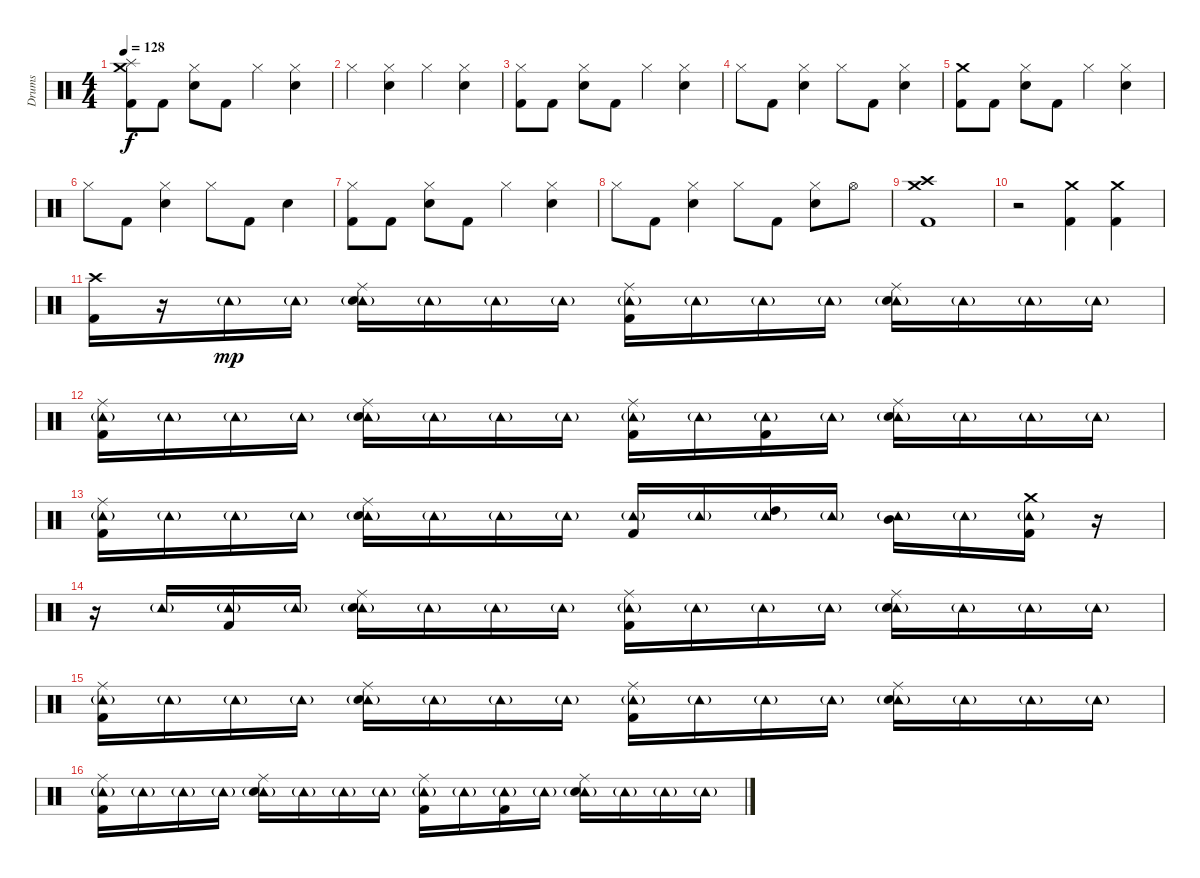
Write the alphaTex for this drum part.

\track ("Drums" "Drums") {instrument percussion}
\staff {score}
\articulation defaults
\ts (4 4)
\tempo 128
\clef neutral
\ks c
("Splash (hit)" "Crash medium (hit)" "Kick (hit) 2").8{dy f} "Kick (hit) 2".8 ("Hi-Hat (closed)" "Electric Snare (hit)").8 "Kick (hit) 2".8 "Hi-Hat (closed)".4 ("Hi-Hat (closed)" "Electric Snare (hit)").4 |
"Hi-Hat (closed)".4 ("Hi-Hat (closed)" "Electric Snare (hit)").4 "Hi-Hat (closed)".4 ("Hi-Hat (closed)" "Electric Snare (hit)").4 |
("Hi-Hat (closed)" "Kick (hit) 2").8 "Kick (hit) 2".8 ("Hi-Hat (closed)" "Electric Snare (hit)").8 "Kick (hit) 2".8 "Hi-Hat (closed)".4 ("Hi-Hat (closed)" "Electric Snare (hit)").4 |
"Hi-Hat (closed)".8 "Kick (hit) 2".8 ("Hi-Hat (closed)" "Electric Snare (hit)").4 "Hi-Hat (closed)".8 "Kick (hit) 2".8 ("Hi-Hat (closed)" "Electric Snare (hit)").4 |
("Crash medium (hit)" "Kick (hit) 2").8 "Kick (hit) 2".8 ("Hi-Hat (closed)" "Electric Snare (hit)").8 "Kick (hit) 2".8 "Hi-Hat (closed)".4 ("Hi-Hat (closed)" "Electric Snare (hit)").4 |
"Hi-Hat (closed)".8 "Kick (hit) 2".8 ("Hi-Hat (closed)" "Electric Snare (hit)").4 "Hi-Hat (closed)".8 "Kick (hit) 2".8 "Electric Snare (hit)".4 |
("Hi-Hat (closed)" "Kick (hit) 2").8 "Kick (hit) 2".8 ("Hi-Hat (closed)" "Electric Snare (hit)").8 "Kick (hit) 2".8 "Hi-Hat (closed)".4 ("Hi-Hat (closed)" "Electric Snare (hit)").4 |
"Hi-Hat (closed)".8 "Kick (hit) 2".8 ("Hi-Hat (closed)" "Electric Snare (hit)").4 "Hi-Hat (closed)".8 "Kick (hit) 2".8 ("Hi-Hat (closed)" "Electric Snare (hit)").8 "Hi-Hat (open)".8 |
("Crash medium (hit)" "Crash high (hit)" "Kick (hit) 2").1 |
r.2 ("Crash medium (hit)" "Kick (hit) 2").4 ("Crash medium (hit)" "Kick (hit) 2").4 |
("Crash high (hit)" "Kick (hit) 2").16 r.16 "Tambourine (hit)"{g}.16{dy mp} "Tambourine (hit)"{g}.16 ("Ride (middle)" "Tambourine (hit)"{g} "Electric Snare (hit)").16 "Tambourine (hit)"{g}.16 "Tambourine (hit)"{g}.16 "Tambourine (hit)"{g}.16 ("Ride (middle)" "Tambourine (hit)"{g} "Kick (hit) 2").16 "Tambourine (hit)"{g}.16 "Tambourine (hit)"{g}.16 "Tambourine (hit)"{g}.16 ("Ride (middle)" "Tambourine (hit)"{g} "Electric Snare (hit)").16 "Tambourine (hit)"{g}.16 "Tambourine (hit)"{g}.16 "Tambourine (hit)"{g}.16 |
("Ride (middle)" "Tambourine (hit)"{g} "Kick (hit) 2").16 "Tambourine (hit)"{g}.16 "Tambourine (hit)"{g}.16 "Tambourine (hit)"{g}.16 ("Ride (middle)" "Tambourine (hit)"{g} "Electric Snare (hit)").16 "Tambourine (hit)"{g}.16 "Tambourine (hit)"{g}.16 "Tambourine (hit)"{g}.16 ("Ride (middle)" "Tambourine (hit)"{g} "Kick (hit) 2").16 "Tambourine (hit)"{g}.16 ("Tambourine (hit)"{g} "Kick (hit) 2").16 "Tambourine (hit)"{g}.16 ("Ride (middle)" "Tambourine (hit)"{g} "Electric Snare (hit)").16 "Tambourine (hit)"{g}.16 "Tambourine (hit)"{g}.16 "Tambourine (hit)"{g}.16 |
("Ride (middle)" "Tambourine (hit)"{g} "Kick (hit) 2").16 "Tambourine (hit)"{g}.16 "Tambourine (hit)"{g}.16 "Tambourine (hit)"{g}.16 ("Ride (middle)" "Tambourine (hit)"{g} "Electric Snare (hit)").16 "Tambourine (hit)"{g}.16 "Tambourine (hit)"{g}.16 "Tambourine (hit)"{g}.16 ("Tambourine (hit)"{g} "Kick (hit) 2").16 "Tambourine (hit)"{g}.16 ("Tambourine (hit)"{g} "High Tom (hit)").16 "Tambourine (hit)"{g}.16 ("Tambourine (hit)"{g} "Mid Tom (hit)").16 "Tambourine (hit)"{g}.16 ("Crash medium (hit)" "Tambourine (hit)"{g} "Kick (hit) 2").16 r.16 |
r.16 "Tambourine (hit)"{g}.16 ("Tambourine (hit)"{g} "Kick (hit) 2").16 "Tambourine (hit)"{g}.16 ("Ride (middle)" "Tambourine (hit)"{g} "Electric Snare (hit)").16 "Tambourine (hit)"{g}.16 "Tambourine (hit)"{g}.16 "Tambourine (hit)"{g}.16 ("Ride (middle)" "Tambourine (hit)"{g} "Kick (hit) 2").16 "Tambourine (hit)"{g}.16 "Tambourine (hit)"{g}.16 "Tambourine (hit)"{g}.16 ("Ride (middle)" "Tambourine (hit)"{g} "Electric Snare (hit)").16 "Tambourine (hit)"{g}.16 "Tambourine (hit)"{g}.16 "Tambourine (hit)"{g}.16 |
("Ride (middle)" "Tambourine (hit)"{g} "Kick (hit) 2").16 "Tambourine (hit)"{g}.16 "Tambourine (hit)"{g}.16 "Tambourine (hit)"{g}.16 ("Ride (middle)" "Tambourine (hit)"{g} "Electric Snare (hit)").16 "Tambourine (hit)"{g}.16 "Tambourine (hit)"{g}.16 "Tambourine (hit)"{g}.16 ("Ride (middle)" "Tambourine (hit)"{g} "Kick (hit) 2").16 "Tambourine (hit)"{g}.16 "Tambourine (hit)"{g}.16 "Tambourine (hit)"{g}.16 ("Ride (middle)" "Tambourine (hit)"{g} "Electric Snare (hit)").16 "Tambourine (hit)"{g}.16 "Tambourine (hit)"{g}.16 "Tambourine (hit)"{g}.16 |
("Ride (middle)" "Tambourine (hit)"{g} "Kick (hit) 2").16 "Tambourine (hit)"{g}.16 "Tambourine (hit)"{g}.16 "Tambourine (hit)"{g}.16 ("Ride (middle)" "Tambourine (hit)"{g} "Electric Snare (hit)").16 "Tambourine (hit)"{g}.16 "Tambourine (hit)"{g}.16 "Tambourine (hit)"{g}.16 ("Ride (middle)" "Tambourine (hit)"{g} "Kick (hit) 2").16 "Tambourine (hit)"{g}.16 ("Tambourine (hit)"{g} "Kick (hit) 2").16 "Tambourine (hit)"{g}.16 ("Ride (middle)" "Tambourine (hit)"{g} "Electric Snare (hit)").16 "Tambourine (hit)"{g}.16 "Tambourine (hit)"{g}.16 "Tambourine (hit)"{g}.16
